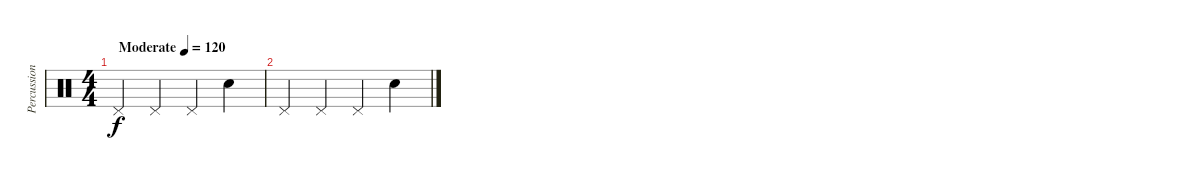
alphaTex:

\track ("Percussion" "Percussion") {instrument percussion}
\staff {score}
\articulation defaults
\ts (4 4)
\tempo (120 "Moderate")
\clef neutral
\ks c "Pedal Hi-Hat (hit)".4{dy f} "Pedal Hi-Hat (hit)".4 "Pedal Hi-Hat (hit)".4 "Electric Snare (hit)".4
|
"Pedal Hi-Hat (hit)".4 "Pedal Hi-Hat (hit)".4 "Pedal Hi-Hat (hit)".4 "Electric Snare (hit)".4
